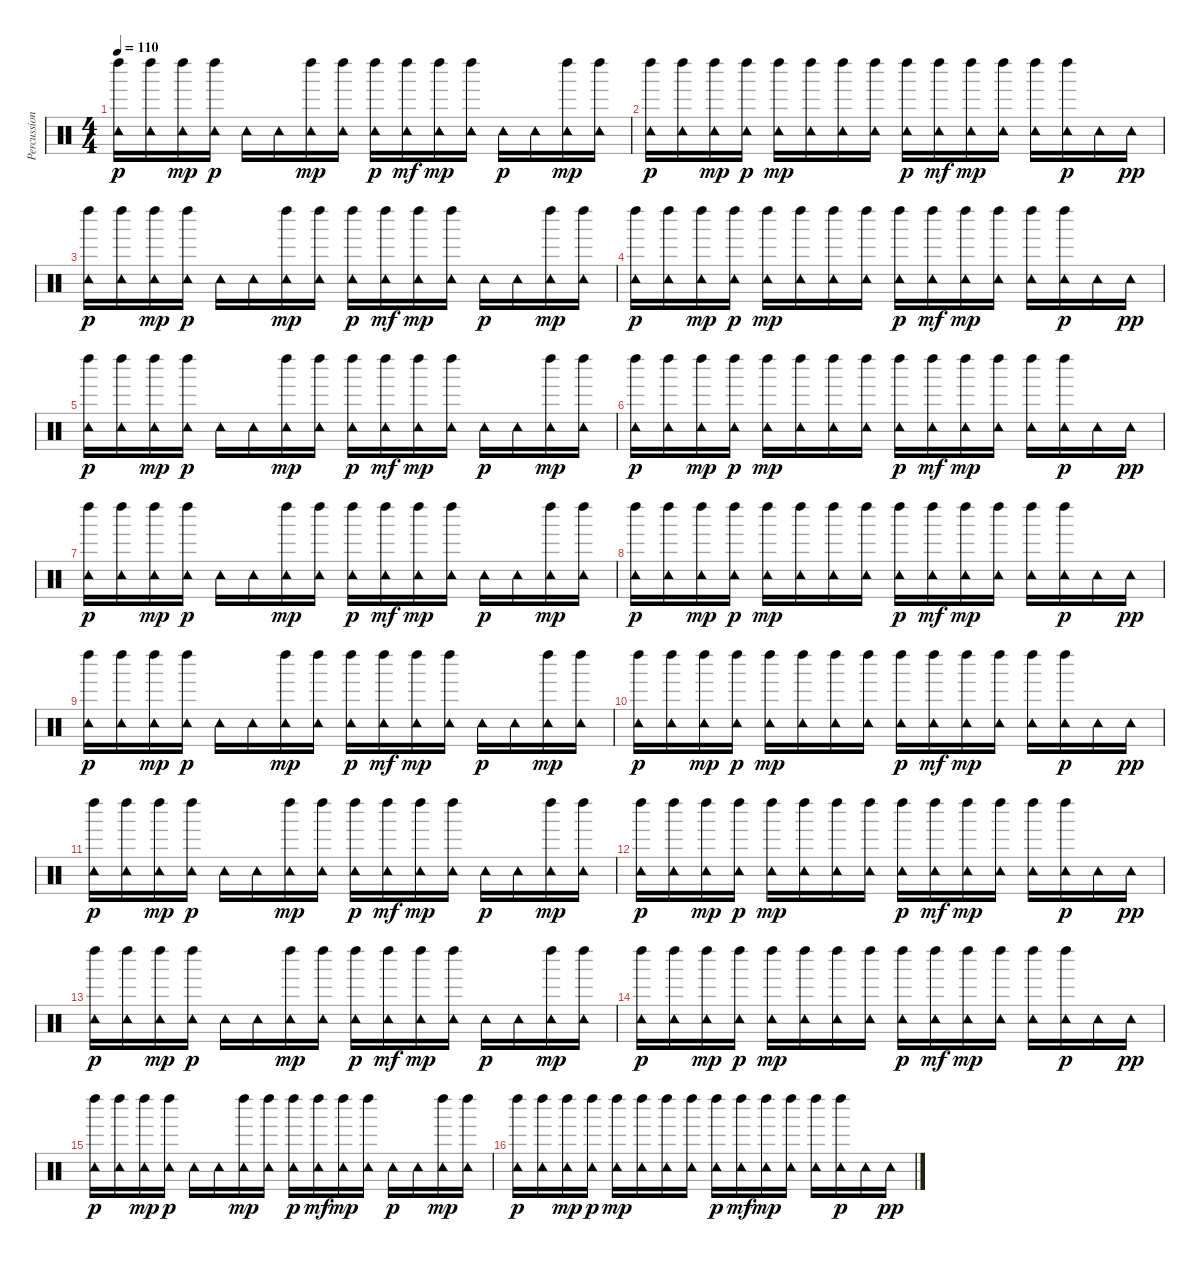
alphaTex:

\track ("Percussion" "Percussion") {instrument percussion}
\staff {score}
\articulation defaults
\ts (4 4)
\tempo 110
\clef neutral
\ks c
("Tambourine (hit)" "Left Maraca (hit)").16{dy p} ("Left Maraca (hit)" "Tambourine (hit)").16 ("Tambourine (hit)" "Left Maraca (hit)").16{dy mp} ("Left Maraca (hit)" "Tambourine (hit)").16{dy p} "Tambourine (hit)".16 "Tambourine (hit)".16 ("Tambourine (hit)" "Left Maraca (hit)").16{dy mp} ("Tambourine (hit)" "Left Maraca (hit)").16 ("Tambourine (hit)" "Left Maraca (hit)").16{dy p} ("Tambourine (hit)" "Left Maraca (hit)").16{dy mf} ("Tambourine (hit)" "Left Maraca (hit)").16{dy mp} ("Tambourine (hit)" "Left Maraca (hit)").16 "Tambourine (hit)".16{dy p} "Tambourine (hit)".16 ("Tambourine (hit)" "Left Maraca (hit)").16{dy mp} ("Tambourine (hit)" "Left Maraca (hit)").16 |
("Tambourine (hit)" "Left Maraca (hit)").16{dy p} ("Left Maraca (hit)" "Tambourine (hit)").16 ("Tambourine (hit)" "Left Maraca (hit)").16{dy mp} ("Left Maraca (hit)" "Tambourine (hit)").16{dy p} ("Tambourine (hit)" "Left Maraca (hit)").16{dy mp} ("Tambourine (hit)" "Left Maraca (hit)").16 ("Tambourine (hit)" "Left Maraca (hit)").16 ("Tambourine (hit)" "Left Maraca (hit)").16 ("Tambourine (hit)" "Left Maraca (hit)").16{dy p} ("Tambourine (hit)" "Left Maraca (hit)").16{dy mf} ("Tambourine (hit)" "Left Maraca (hit)").16{dy mp} ("Tambourine (hit)" "Left Maraca (hit)").16 ("Tambourine (hit)" "Left Maraca (hit)").16 ("Tambourine (hit)" "Left Maraca (hit)").16{dy p} "Tambourine (hit)".16 "Tambourine (hit)".16{dy pp} |
("Tambourine (hit)" "Left Maraca (hit)").16{dy p} ("Left Maraca (hit)" "Tambourine (hit)").16 ("Tambourine (hit)" "Left Maraca (hit)").16{dy mp} ("Left Maraca (hit)" "Tambourine (hit)").16{dy p} "Tambourine (hit)".16 "Tambourine (hit)".16 ("Tambourine (hit)" "Left Maraca (hit)").16{dy mp} ("Tambourine (hit)" "Left Maraca (hit)").16 ("Tambourine (hit)" "Left Maraca (hit)").16{dy p} ("Tambourine (hit)" "Left Maraca (hit)").16{dy mf} ("Tambourine (hit)" "Left Maraca (hit)").16{dy mp} ("Tambourine (hit)" "Left Maraca (hit)").16 "Tambourine (hit)".16{dy p} "Tambourine (hit)".16 ("Tambourine (hit)" "Left Maraca (hit)").16{dy mp} ("Tambourine (hit)" "Left Maraca (hit)").16 |
("Tambourine (hit)" "Left Maraca (hit)").16{dy p} ("Left Maraca (hit)" "Tambourine (hit)").16 ("Tambourine (hit)" "Left Maraca (hit)").16{dy mp} ("Left Maraca (hit)" "Tambourine (hit)").16{dy p} ("Tambourine (hit)" "Left Maraca (hit)").16{dy mp} ("Tambourine (hit)" "Left Maraca (hit)").16 ("Tambourine (hit)" "Left Maraca (hit)").16 ("Tambourine (hit)" "Left Maraca (hit)").16 ("Tambourine (hit)" "Left Maraca (hit)").16{dy p} ("Tambourine (hit)" "Left Maraca (hit)").16{dy mf} ("Tambourine (hit)" "Left Maraca (hit)").16{dy mp} ("Tambourine (hit)" "Left Maraca (hit)").16 ("Tambourine (hit)" "Left Maraca (hit)").16 ("Tambourine (hit)" "Left Maraca (hit)").16{dy p} "Tambourine (hit)".16 "Tambourine (hit)".16{dy pp} |
("Tambourine (hit)" "Left Maraca (hit)").16{dy p} ("Left Maraca (hit)" "Tambourine (hit)").16 ("Tambourine (hit)" "Left Maraca (hit)").16{dy mp} ("Left Maraca (hit)" "Tambourine (hit)").16{dy p} "Tambourine (hit)".16 "Tambourine (hit)".16 ("Tambourine (hit)" "Left Maraca (hit)").16{dy mp} ("Tambourine (hit)" "Left Maraca (hit)").16 ("Tambourine (hit)" "Left Maraca (hit)").16{dy p} ("Tambourine (hit)" "Left Maraca (hit)").16{dy mf} ("Tambourine (hit)" "Left Maraca (hit)").16{dy mp} ("Tambourine (hit)" "Left Maraca (hit)").16 "Tambourine (hit)".16{dy p} "Tambourine (hit)".16 ("Tambourine (hit)" "Left Maraca (hit)").16{dy mp} ("Tambourine (hit)" "Left Maraca (hit)").16 |
("Tambourine (hit)" "Left Maraca (hit)").16{dy p} ("Left Maraca (hit)" "Tambourine (hit)").16 ("Tambourine (hit)" "Left Maraca (hit)").16{dy mp} ("Left Maraca (hit)" "Tambourine (hit)").16{dy p} ("Tambourine (hit)" "Left Maraca (hit)").16{dy mp} ("Tambourine (hit)" "Left Maraca (hit)").16 ("Tambourine (hit)" "Left Maraca (hit)").16 ("Tambourine (hit)" "Left Maraca (hit)").16 ("Tambourine (hit)" "Left Maraca (hit)").16{dy p} ("Tambourine (hit)" "Left Maraca (hit)").16{dy mf} ("Tambourine (hit)" "Left Maraca (hit)").16{dy mp} ("Tambourine (hit)" "Left Maraca (hit)").16 ("Tambourine (hit)" "Left Maraca (hit)").16 ("Tambourine (hit)" "Left Maraca (hit)").16{dy p} "Tambourine (hit)".16 "Tambourine (hit)".16{dy pp} |
("Tambourine (hit)" "Left Maraca (hit)").16{dy p} ("Left Maraca (hit)" "Tambourine (hit)").16 ("Tambourine (hit)" "Left Maraca (hit)").16{dy mp} ("Left Maraca (hit)" "Tambourine (hit)").16{dy p} "Tambourine (hit)".16 "Tambourine (hit)".16 ("Tambourine (hit)" "Left Maraca (hit)").16{dy mp} ("Tambourine (hit)" "Left Maraca (hit)").16 ("Tambourine (hit)" "Left Maraca (hit)").16{dy p} ("Tambourine (hit)" "Left Maraca (hit)").16{dy mf} ("Tambourine (hit)" "Left Maraca (hit)").16{dy mp} ("Tambourine (hit)" "Left Maraca (hit)").16 "Tambourine (hit)".16{dy p} "Tambourine (hit)".16 ("Tambourine (hit)" "Left Maraca (hit)").16{dy mp} ("Tambourine (hit)" "Left Maraca (hit)").16 |
("Tambourine (hit)" "Left Maraca (hit)").16{dy p} ("Left Maraca (hit)" "Tambourine (hit)").16 ("Tambourine (hit)" "Left Maraca (hit)").16{dy mp} ("Left Maraca (hit)" "Tambourine (hit)").16{dy p} ("Tambourine (hit)" "Left Maraca (hit)").16{dy mp} ("Tambourine (hit)" "Left Maraca (hit)").16 ("Tambourine (hit)" "Left Maraca (hit)").16 ("Tambourine (hit)" "Left Maraca (hit)").16 ("Tambourine (hit)" "Left Maraca (hit)").16{dy p} ("Tambourine (hit)" "Left Maraca (hit)").16{dy mf} ("Tambourine (hit)" "Left Maraca (hit)").16{dy mp} ("Tambourine (hit)" "Left Maraca (hit)").16 ("Tambourine (hit)" "Left Maraca (hit)").16 ("Tambourine (hit)" "Left Maraca (hit)").16{dy p} "Tambourine (hit)".16 "Tambourine (hit)".16{dy pp} |
("Tambourine (hit)" "Left Maraca (hit)").16{dy p} ("Left Maraca (hit)" "Tambourine (hit)").16 ("Tambourine (hit)" "Left Maraca (hit)").16{dy mp} ("Left Maraca (hit)" "Tambourine (hit)").16{dy p} "Tambourine (hit)".16 "Tambourine (hit)".16 ("Tambourine (hit)" "Left Maraca (hit)").16{dy mp} ("Tambourine (hit)" "Left Maraca (hit)").16 ("Tambourine (hit)" "Left Maraca (hit)").16{dy p} ("Tambourine (hit)" "Left Maraca (hit)").16{dy mf} ("Tambourine (hit)" "Left Maraca (hit)").16{dy mp} ("Tambourine (hit)" "Left Maraca (hit)").16 "Tambourine (hit)".16{dy p} "Tambourine (hit)".16 ("Tambourine (hit)" "Left Maraca (hit)").16{dy mp} ("Tambourine (hit)" "Left Maraca (hit)").16 |
("Tambourine (hit)" "Left Maraca (hit)").16{dy p} ("Left Maraca (hit)" "Tambourine (hit)").16 ("Tambourine (hit)" "Left Maraca (hit)").16{dy mp} ("Left Maraca (hit)" "Tambourine (hit)").16{dy p} ("Tambourine (hit)" "Left Maraca (hit)").16{dy mp} ("Tambourine (hit)" "Left Maraca (hit)").16 ("Tambourine (hit)" "Left Maraca (hit)").16 ("Tambourine (hit)" "Left Maraca (hit)").16 ("Tambourine (hit)" "Left Maraca (hit)").16{dy p} ("Tambourine (hit)" "Left Maraca (hit)").16{dy mf} ("Tambourine (hit)" "Left Maraca (hit)").16{dy mp} ("Tambourine (hit)" "Left Maraca (hit)").16 ("Tambourine (hit)" "Left Maraca (hit)").16 ("Tambourine (hit)" "Left Maraca (hit)").16{dy p} "Tambourine (hit)".16 "Tambourine (hit)".16{dy pp} |
("Tambourine (hit)" "Left Maraca (hit)").16{dy p} ("Left Maraca (hit)" "Tambourine (hit)").16 ("Tambourine (hit)" "Left Maraca (hit)").16{dy mp} ("Left Maraca (hit)" "Tambourine (hit)").16{dy p} "Tambourine (hit)".16 "Tambourine (hit)".16 ("Tambourine (hit)" "Left Maraca (hit)").16{dy mp} ("Tambourine (hit)" "Left Maraca (hit)").16 ("Tambourine (hit)" "Left Maraca (hit)").16{dy p} ("Tambourine (hit)" "Left Maraca (hit)").16{dy mf} ("Tambourine (hit)" "Left Maraca (hit)").16{dy mp} ("Tambourine (hit)" "Left Maraca (hit)").16 "Tambourine (hit)".16{dy p} "Tambourine (hit)".16 ("Tambourine (hit)" "Left Maraca (hit)").16{dy mp} ("Tambourine (hit)" "Left Maraca (hit)").16 |
("Tambourine (hit)" "Left Maraca (hit)").16{dy p} ("Left Maraca (hit)" "Tambourine (hit)").16 ("Tambourine (hit)" "Left Maraca (hit)").16{dy mp} ("Left Maraca (hit)" "Tambourine (hit)").16{dy p} ("Tambourine (hit)" "Left Maraca (hit)").16{dy mp} ("Tambourine (hit)" "Left Maraca (hit)").16 ("Tambourine (hit)" "Left Maraca (hit)").16 ("Tambourine (hit)" "Left Maraca (hit)").16 ("Tambourine (hit)" "Left Maraca (hit)").16{dy p} ("Tambourine (hit)" "Left Maraca (hit)").16{dy mf} ("Tambourine (hit)" "Left Maraca (hit)").16{dy mp} ("Tambourine (hit)" "Left Maraca (hit)").16 ("Tambourine (hit)" "Left Maraca (hit)").16 ("Tambourine (hit)" "Left Maraca (hit)").16{dy p} "Tambourine (hit)".16 "Tambourine (hit)".16{dy pp} |
("Tambourine (hit)" "Left Maraca (hit)").16{dy p} ("Left Maraca (hit)" "Tambourine (hit)").16 ("Tambourine (hit)" "Left Maraca (hit)").16{dy mp} ("Left Maraca (hit)" "Tambourine (hit)").16{dy p} "Tambourine (hit)".16 "Tambourine (hit)".16 ("Tambourine (hit)" "Left Maraca (hit)").16{dy mp} ("Tambourine (hit)" "Left Maraca (hit)").16 ("Tambourine (hit)" "Left Maraca (hit)").16{dy p} ("Tambourine (hit)" "Left Maraca (hit)").16{dy mf} ("Tambourine (hit)" "Left Maraca (hit)").16{dy mp} ("Tambourine (hit)" "Left Maraca (hit)").16 "Tambourine (hit)".16{dy p} "Tambourine (hit)".16 ("Tambourine (hit)" "Left Maraca (hit)").16{dy mp} ("Tambourine (hit)" "Left Maraca (hit)").16 |
("Tambourine (hit)" "Left Maraca (hit)").16{dy p} ("Left Maraca (hit)" "Tambourine (hit)").16 ("Tambourine (hit)" "Left Maraca (hit)").16{dy mp} ("Left Maraca (hit)" "Tambourine (hit)").16{dy p} ("Tambourine (hit)" "Left Maraca (hit)").16{dy mp} ("Tambourine (hit)" "Left Maraca (hit)").16 ("Tambourine (hit)" "Left Maraca (hit)").16 ("Tambourine (hit)" "Left Maraca (hit)").16 ("Tambourine (hit)" "Left Maraca (hit)").16{dy p} ("Tambourine (hit)" "Left Maraca (hit)").16{dy mf} ("Tambourine (hit)" "Left Maraca (hit)").16{dy mp} ("Tambourine (hit)" "Left Maraca (hit)").16 ("Tambourine (hit)" "Left Maraca (hit)").16 ("Tambourine (hit)" "Left Maraca (hit)").16{dy p} "Tambourine (hit)".16 "Tambourine (hit)".16{dy pp} |
("Tambourine (hit)" "Left Maraca (hit)").16{dy p} ("Left Maraca (hit)" "Tambourine (hit)").16 ("Tambourine (hit)" "Left Maraca (hit)").16{dy mp} ("Left Maraca (hit)" "Tambourine (hit)").16{dy p} "Tambourine (hit)".16 "Tambourine (hit)".16 ("Tambourine (hit)" "Left Maraca (hit)").16{dy mp} ("Tambourine (hit)" "Left Maraca (hit)").16 ("Tambourine (hit)" "Left Maraca (hit)").16{dy p} ("Tambourine (hit)" "Left Maraca (hit)").16{dy mf} ("Tambourine (hit)" "Left Maraca (hit)").16{dy mp} ("Tambourine (hit)" "Left Maraca (hit)").16 "Tambourine (hit)".16{dy p} "Tambourine (hit)".16 ("Tambourine (hit)" "Left Maraca (hit)").16{dy mp} ("Tambourine (hit)" "Left Maraca (hit)").16 |
("Tambourine (hit)" "Left Maraca (hit)").16{dy p} ("Left Maraca (hit)" "Tambourine (hit)").16 ("Tambourine (hit)" "Left Maraca (hit)").16{dy mp} ("Left Maraca (hit)" "Tambourine (hit)").16{dy p} ("Tambourine (hit)" "Left Maraca (hit)").16{dy mp} ("Tambourine (hit)" "Left Maraca (hit)").16 ("Tambourine (hit)" "Left Maraca (hit)").16 ("Tambourine (hit)" "Left Maraca (hit)").16 ("Tambourine (hit)" "Left Maraca (hit)").16{dy p} ("Tambourine (hit)" "Left Maraca (hit)").16{dy mf} ("Tambourine (hit)" "Left Maraca (hit)").16{dy mp} ("Tambourine (hit)" "Left Maraca (hit)").16 ("Tambourine (hit)" "Left Maraca (hit)").16 ("Tambourine (hit)" "Left Maraca (hit)").16{dy p} "Tambourine (hit)".16 "Tambourine (hit)".16{dy pp}
